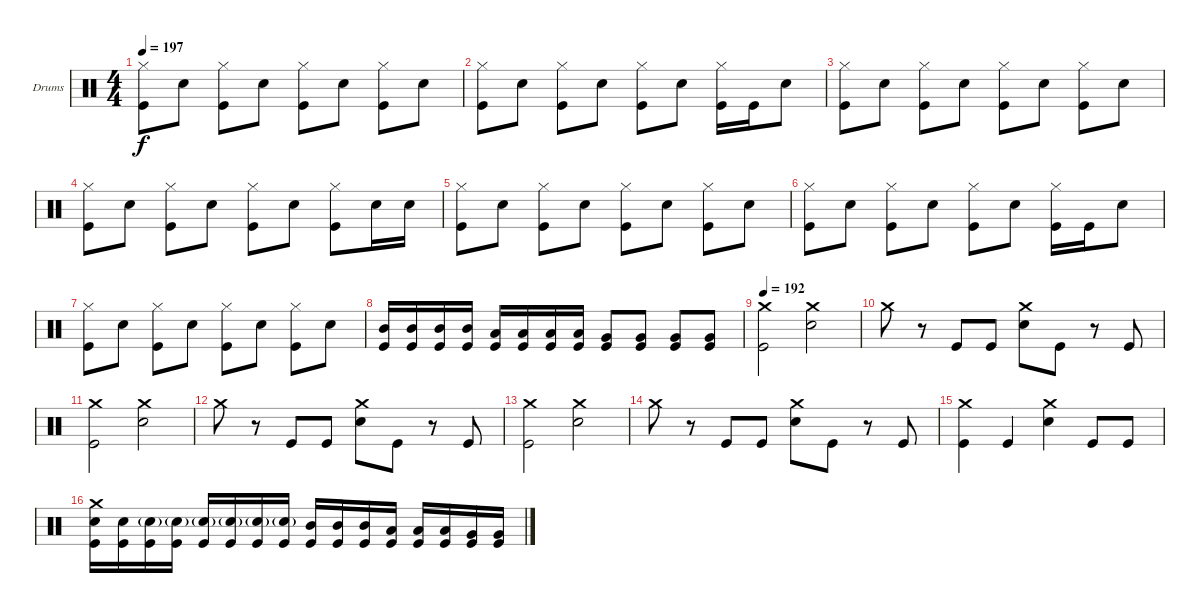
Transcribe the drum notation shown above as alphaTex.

\bracketExtendMode groupsimilarinstruments
\firstSystemTrackNameOrientation horizontal
\otherSystemsTrackNameOrientation horizontal
\track ("Drumkit" "Drums") {instrument percussion}
\staff {score}
\articulation defaults
\ts (4 4)
\tempo 197
\clef neutral
\ks c
("Hi-Hat (closed)" "Kick (hit)").8{dy f} "Snare (hit) 2".8 ("Hi-Hat (closed)" "Kick (hit)").8 "Snare (hit) 2".8 ("Hi-Hat (closed)" "Kick (hit)").8 "Snare (hit) 2".8 ("Hi-Hat (closed)" "Kick (hit)").8 "Snare (hit) 2".8 |
("Hi-Hat (closed)" "Kick (hit)").8 "Snare (hit) 2".8 ("Hi-Hat (closed)" "Kick (hit)").8 "Snare (hit) 2".8 ("Hi-Hat (closed)" "Kick (hit)").8 "Snare (hit) 2".8 ("Hi-Hat (closed)" "Kick (hit)").16 "Kick (hit)".16 "Snare (hit) 2".8 |
("Hi-Hat (closed)" "Kick (hit)").8 "Snare (hit) 2".8 ("Hi-Hat (closed)" "Kick (hit)").8 "Snare (hit) 2".8 ("Hi-Hat (closed)" "Kick (hit)").8 "Snare (hit) 2".8 ("Hi-Hat (closed)" "Kick (hit)").8 "Snare (hit) 2".8 |
("Hi-Hat (closed)" "Kick (hit)").8 "Snare (hit) 2".8 ("Hi-Hat (closed)" "Kick (hit)").8 "Snare (hit) 2".8 ("Hi-Hat (closed)" "Kick (hit)").8 "Snare (hit) 2".8 ("Hi-Hat (closed)" "Kick (hit)").8 "Snare (hit) 2".16 "Snare (hit) 2".16 |
("Hi-Hat (closed)" "Kick (hit)").8 "Snare (hit) 2".8 ("Hi-Hat (closed)" "Kick (hit)").8 "Snare (hit) 2".8 ("Hi-Hat (closed)" "Kick (hit)").8 "Snare (hit) 2".8 ("Hi-Hat (closed)" "Kick (hit)").8 "Snare (hit) 2".8 |
("Hi-Hat (closed)" "Kick (hit)").8 "Snare (hit) 2".8 ("Hi-Hat (closed)" "Kick (hit)").8 "Snare (hit) 2".8 ("Hi-Hat (closed)" "Kick (hit)").8 "Snare (hit) 2".8 ("Hi-Hat (closed)" "Kick (hit)").16 "Kick (hit)".16 "Snare (hit) 2".8 |
("Hi-Hat (closed)" "Kick (hit)").8 "Snare (hit) 2".8 ("Hi-Hat (closed)" "Kick (hit)").8 "Snare (hit) 2".8 ("Hi-Hat (closed)" "Kick (hit)").8 "Snare (hit) 2".8 ("Hi-Hat (closed)" "Kick (hit)").8 "Snare (hit) 2".8 |
("Mid Tom (hit)" "Kick (hit)").16 ("Mid Tom (hit)" "Kick (hit)").16 ("Mid Tom (hit)" "Kick (hit)").16 ("Mid Tom (hit)" "Kick (hit)").16 ("Low Tom (hit)" "Kick (hit)").16 ("Low Tom (hit)" "Kick (hit)").16 ("Low Tom (hit)" "Kick (hit)").16 ("Low Tom (hit)" "Kick (hit)").16 ("Very Low Tom (hit)" "Kick (hit)").8 ("Very Low Tom (hit)" "Kick (hit)").8 ("Very Low Tom (hit)" "Kick (hit)").8 ("Very Low Tom (hit)" "Kick (hit)").8 |
\tempo 192
("Crash medium (hit)" "Kick (hit)").2 ("Crash medium (hit)" "Snare (hit) 2").2 |
"Crash medium (hit)".8 r.8 "Kick (hit)".8 "Kick (hit)".8 ("Crash medium (hit)" "Snare (hit) 2").8 "Kick (hit)".8 r.8 "Kick (hit)".8 |
("Crash medium (hit)" "Kick (hit)").2 ("Crash medium (hit)" "Snare (hit) 2").2 |
"Crash medium (hit)".8 r.8 "Kick (hit)".8 "Kick (hit)".8 ("Crash medium (hit)" "Snare (hit) 2").8 "Kick (hit)".8 r.8 "Kick (hit)".8 |
("Crash medium (hit)" "Kick (hit)").2 ("Crash medium (hit)" "Snare (hit) 2").2 |
"Crash medium (hit)".8 r.8 "Kick (hit)".8 "Kick (hit)".8 ("Crash medium (hit)" "Snare (hit) 2").8 "Kick (hit)".8 r.8 "Kick (hit)".8 |
("Crash medium (hit)" "Kick (hit)").4 "Kick (hit)".4 ("Crash medium (hit)" "Snare (hit) 2").4 "Kick (hit)".8 "Kick (hit)".8 |
("Crash medium (hit)" "Snare (hit) 2" "Kick (hit)").16 ("Snare (hit) 2" "Kick (hit)").16 ("Snare (hit) 2"{g} "Kick (hit)").16 ("Snare (hit) 2"{g} "Kick (hit)").16 ("Snare (hit) 2"{g} "Kick (hit)").16 ("Snare (hit) 2"{g} "Kick (hit)").16 ("Snare (hit) 2"{g} "Kick (hit)").16 ("Snare (hit) 2"{g} "Kick (hit)").16 ("Mid Tom (hit)" "Kick (hit)").16 ("Mid Tom (hit)" "Kick (hit)").16 ("Mid Tom (hit)" "Kick (hit)").16 ("Low Tom (hit)" "Kick (hit)").16 ("Low Tom (hit)" "Kick (hit)").16 ("Low Tom (hit)" "Kick (hit)").16 ("Very Low Tom (hit)" "Kick (hit)").16 ("Very Low Tom (hit)" "Kick (hit)").16
